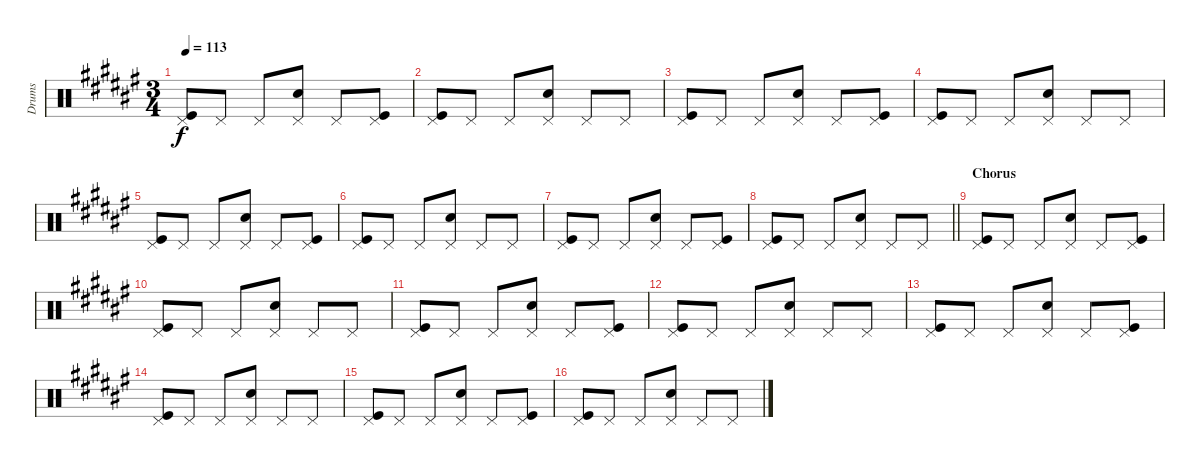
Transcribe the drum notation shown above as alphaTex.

\track ("Drums" "Drums") {instrument percussion}
\staff {score}
\articulation defaults
\ts (3 4)
\tempo 113
\clef neutral
\ks f#
("Pedal Hi-Hat (hit)" "Kick (hit)").8{dy f} "Pedal Hi-Hat (hit)".8 "Pedal Hi-Hat (hit)".8 ("Pedal Hi-Hat (hit)" "Snare (hit) 2").8 "Pedal Hi-Hat (hit)".8 ("Pedal Hi-Hat (hit)" "Kick (hit)").8 |
("Pedal Hi-Hat (hit)" "Kick (hit)").8 "Pedal Hi-Hat (hit)".8 "Pedal Hi-Hat (hit)".8 ("Pedal Hi-Hat (hit)" "Snare (hit) 2").8 "Pedal Hi-Hat (hit)".8 "Pedal Hi-Hat (hit)".8 |
("Pedal Hi-Hat (hit)" "Kick (hit)").8 "Pedal Hi-Hat (hit)".8 "Pedal Hi-Hat (hit)".8 ("Pedal Hi-Hat (hit)" "Snare (hit) 2").8 "Pedal Hi-Hat (hit)".8 ("Pedal Hi-Hat (hit)" "Kick (hit)").8 |
("Pedal Hi-Hat (hit)" "Kick (hit)").8 "Pedal Hi-Hat (hit)".8 "Pedal Hi-Hat (hit)".8 ("Pedal Hi-Hat (hit)" "Snare (hit) 2").8 "Pedal Hi-Hat (hit)".8 "Pedal Hi-Hat (hit)".8 |
("Pedal Hi-Hat (hit)" "Kick (hit)").8 "Pedal Hi-Hat (hit)".8 "Pedal Hi-Hat (hit)".8 ("Pedal Hi-Hat (hit)" "Snare (hit) 2").8 "Pedal Hi-Hat (hit)".8 ("Pedal Hi-Hat (hit)" "Kick (hit)").8 |
("Pedal Hi-Hat (hit)" "Kick (hit)").8 "Pedal Hi-Hat (hit)".8 "Pedal Hi-Hat (hit)".8 ("Pedal Hi-Hat (hit)" "Snare (hit) 2").8 "Pedal Hi-Hat (hit)".8 "Pedal Hi-Hat (hit)".8 |
("Pedal Hi-Hat (hit)" "Kick (hit)").8 "Pedal Hi-Hat (hit)".8 "Pedal Hi-Hat (hit)".8 ("Pedal Hi-Hat (hit)" "Snare (hit) 2").8 "Pedal Hi-Hat (hit)".8 ("Pedal Hi-Hat (hit)" "Kick (hit)").8 |
\barLineRight lightlight
("Pedal Hi-Hat (hit)" "Kick (hit)").8 "Pedal Hi-Hat (hit)".8 "Pedal Hi-Hat (hit)".8 ("Pedal Hi-Hat (hit)" "Snare (hit) 2").8 "Pedal Hi-Hat (hit)".8 "Pedal Hi-Hat (hit)".8 |
\section ("" "Chorus")
("Pedal Hi-Hat (hit)" "Kick (hit)").8 "Pedal Hi-Hat (hit)".8 "Pedal Hi-Hat (hit)".8 ("Pedal Hi-Hat (hit)" "Snare (hit) 2").8 "Pedal Hi-Hat (hit)".8 ("Pedal Hi-Hat (hit)" "Kick (hit)").8 |
("Pedal Hi-Hat (hit)" "Kick (hit)").8 "Pedal Hi-Hat (hit)".8 "Pedal Hi-Hat (hit)".8 ("Pedal Hi-Hat (hit)" "Snare (hit) 2").8 "Pedal Hi-Hat (hit)".8 "Pedal Hi-Hat (hit)".8 |
("Pedal Hi-Hat (hit)" "Kick (hit)").8 "Pedal Hi-Hat (hit)".8 "Pedal Hi-Hat (hit)".8 ("Pedal Hi-Hat (hit)" "Snare (hit) 2").8 "Pedal Hi-Hat (hit)".8 ("Pedal Hi-Hat (hit)" "Kick (hit)").8 |
("Pedal Hi-Hat (hit)" "Kick (hit)").8 "Pedal Hi-Hat (hit)".8 "Pedal Hi-Hat (hit)".8 ("Pedal Hi-Hat (hit)" "Snare (hit) 2").8 "Pedal Hi-Hat (hit)".8 "Pedal Hi-Hat (hit)".8 |
("Pedal Hi-Hat (hit)" "Kick (hit)").8 "Pedal Hi-Hat (hit)".8 "Pedal Hi-Hat (hit)".8 ("Pedal Hi-Hat (hit)" "Snare (hit) 2").8 "Pedal Hi-Hat (hit)".8 ("Pedal Hi-Hat (hit)" "Kick (hit)").8 |
("Pedal Hi-Hat (hit)" "Kick (hit)").8 "Pedal Hi-Hat (hit)".8 "Pedal Hi-Hat (hit)".8 ("Pedal Hi-Hat (hit)" "Snare (hit) 2").8 "Pedal Hi-Hat (hit)".8 "Pedal Hi-Hat (hit)".8 |
("Pedal Hi-Hat (hit)" "Kick (hit)").8 "Pedal Hi-Hat (hit)".8 "Pedal Hi-Hat (hit)".8 ("Pedal Hi-Hat (hit)" "Snare (hit) 2").8 "Pedal Hi-Hat (hit)".8 ("Pedal Hi-Hat (hit)" "Kick (hit)").8 |
("Pedal Hi-Hat (hit)" "Kick (hit)").8 "Pedal Hi-Hat (hit)".8 "Pedal Hi-Hat (hit)".8 ("Pedal Hi-Hat (hit)" "Snare (hit) 2").8 "Pedal Hi-Hat (hit)".8 "Pedal Hi-Hat (hit)".8
